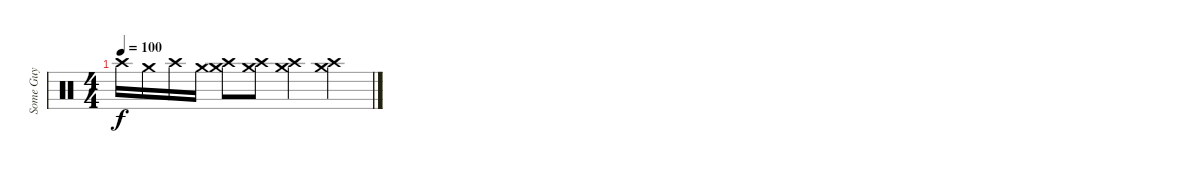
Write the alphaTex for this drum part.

\track ("Some Guy" "Some Guy") {instrument percussion}
\staff {score}
\articulation defaults
\ts (4 4)
\tempo 100
\clef neutral
\ks c "Crash high (hit)".16{dy f} "Crash medium (hit)".16 "Crash high (hit)".16 "Crash medium (hit)".16
("Crash high (hit)" "Crash medium (hit)").8 ("Crash high (hit)" "Crash medium (hit)").8 ("Crash high (hit)" "Crash medium (hit)").4 ("Crash high (hit)" "Crash medium (hit)").4
